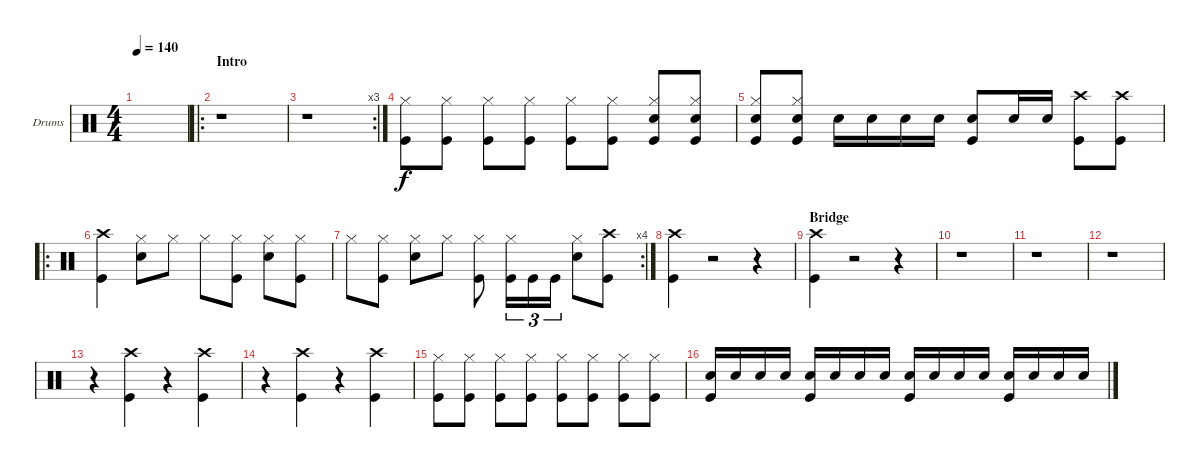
\defaultSystemsLayout 4
\bracketExtendMode groupsimilarinstruments
\firstSystemTrackNameOrientation horizontal
\otherSystemsTrackNameOrientation horizontal
\track ("Drums" "Drums") {instrument percussion}
\staff {score}
\articulation defaults
\ts (4 4)
\tempo 140
\clef neutral
\ks c
|
\ro
\section ("" "Intro")
r.1 |
\rc 3
r.1 |
("Kick (hit)" "Hi-Hat (closed)").8 ("Kick (hit)" "Hi-Hat (closed)").8 ("Kick (hit)" "Hi-Hat (closed)").8 ("Kick (hit)" "Hi-Hat (closed)").8 ("Kick (hit)" "Hi-Hat (closed)").8 ("Kick (hit)" "Hi-Hat (closed)").8 ("Kick (hit)" "Snare (hit) 2" "Hi-Hat (closed)").8 ("Kick (hit)" "Snare (hit) 2" "Hi-Hat (closed)").8 |
("Kick (hit)" "Snare (hit) 2" "Hi-Hat (closed)").8 ("Kick (hit)" "Snare (hit) 2" "Hi-Hat (closed)").8 "Snare (hit) 2".16 "Snare (hit) 2".16 "Snare (hit) 2".16 "Snare (hit) 2".16 ("Kick (hit)" "Snare (hit) 2").8 "Snare (hit) 2".16 "Snare (hit) 2".16 ("Kick (hit)" "Crash high (hit)").8 ("Kick (hit)" "Crash high (hit)").8 |
\ro
("Crash high (hit)" "Kick (hit)").4 ("Snare (hit) 2" "Hi-Hat (closed)").8 "Hi-Hat (closed)".8 "Hi-Hat (closed)".8 ("Kick (hit)" "Hi-Hat (closed)").8 ("Snare (hit) 2" "Hi-Hat (closed)").8 ("Kick (hit)" "Hi-Hat (closed)").8 |
\rc 4 "Hi-Hat (closed)".8
("Kick (hit)" "Hi-Hat (closed)").8 ("Snare (hit) 2" "Hi-Hat (closed)").8 "Hi-Hat (closed)".8 ("Kick (hit)" "Hi-Hat (closed)").8 ("Kick (hit)" "Hi-Hat (closed)").16{tu (3 2)} "Kick (hit)".16{tu (3 2)} "Kick (hit)".16{tu (3 2)} ("Snare (hit) 2" "Hi-Hat (closed)").8 ("Kick (hit)" "Crash high (hit)").8 |
("Kick (hit)" "Crash high (hit)").4 r.2 r.4 |
\section ("" "Bridge")
("Kick (hit)" "Crash high (hit)").4 r.2 r.4 |
r.1 |
r.1 |
r.1 |
r.4 ("Kick (hit)" "Crash high (hit)").4 r.4 ("Kick (hit)" "Crash high (hit)").4 |
r.4 ("Kick (hit)" "Crash high (hit)").4 r.4 ("Crash high (hit)" "Kick (hit)").4 |
("Kick (hit)" "Hi-Hat (closed)").8 ("Kick (hit)" "Hi-Hat (closed)").8 ("Kick (hit)" "Hi-Hat (closed)").8 ("Kick (hit)" "Hi-Hat (closed)").8 ("Kick (hit)" "Hi-Hat (closed)").8 ("Kick (hit)" "Hi-Hat (closed)").8 ("Kick (hit)" "Hi-Hat (closed)").8 ("Kick (hit)" "Hi-Hat (closed)").8 |
("Kick (hit)" "Snare (hit) 2").16 "Snare (hit) 2".16 "Snare (hit) 2".16 "Snare (hit) 2".16 ("Kick (hit)" "Snare (hit) 2").16 "Snare (hit) 2".16 "Snare (hit) 2".16 "Snare (hit) 2".16 ("Kick (hit)" "Snare (hit) 2").16 "Snare (hit) 2".16 "Snare (hit) 2".16 "Snare (hit) 2".16 ("Kick (hit)" "Snare (hit) 2").16 "Snare (hit) 2".16 "Snare (hit) 2".16 "Snare (hit) 2".16
